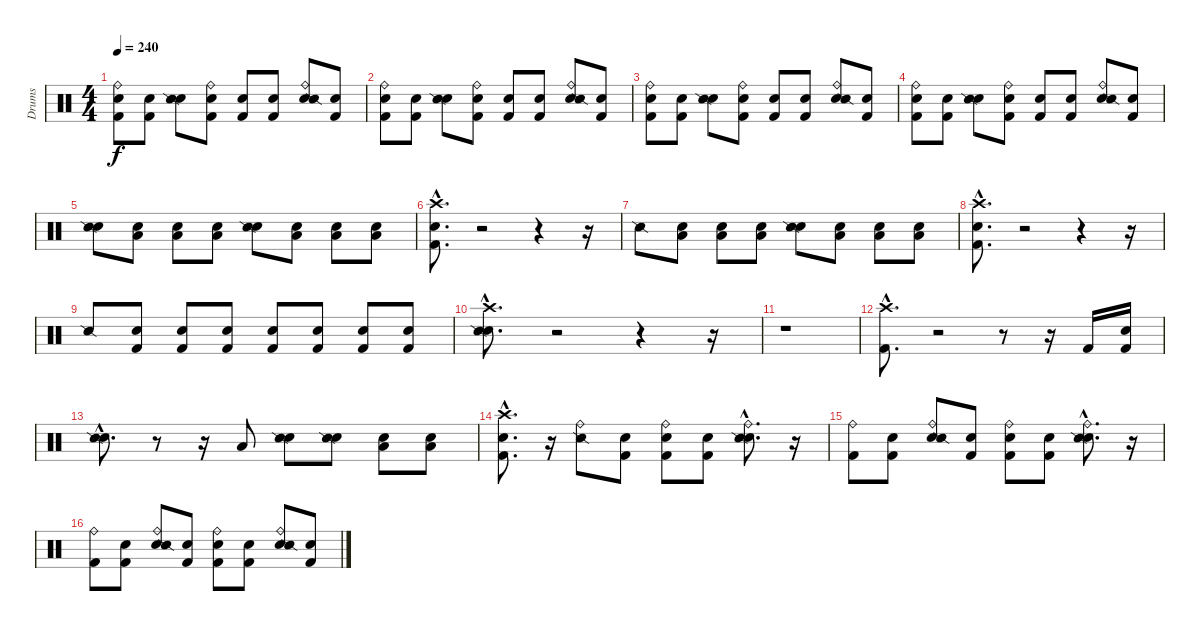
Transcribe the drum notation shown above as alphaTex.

\track ("Drums" "Drums") {instrument percussion}
\staff {score}
\articulation defaults
\ts (4 4)
\tempo 240
\clef neutral
\ks c
("Snare (hit)" "Kick (hit) 2" "Ride (bell)").8{dy f} ("Snare (hit)" "Kick (hit) 2").8 ("Snare (hit)" "Snare (side stick) 2").8 ("Snare (hit)" "Kick (hit) 2" "Ride (bell)").8 ("Snare (hit)" "Kick (hit) 2").8 ("Snare (hit)" "Kick (hit) 2").8 ("Snare (hit)" "Ride (bell)" "Snare (side stick) 2").8 ("Snare (hit)" "Kick (hit) 2").8 |
("Snare (hit)" "Kick (hit) 2" "Ride (bell)").8 ("Snare (hit)" "Kick (hit) 2").8 ("Snare (hit)" "Snare (side stick) 2").8 ("Snare (hit)" "Kick (hit) 2" "Ride (bell)").8 ("Snare (hit)" "Kick (hit) 2").8 ("Snare (hit)" "Kick (hit) 2").8 ("Snare (hit)" "Ride (bell)" "Snare (side stick) 2").8 ("Snare (hit)" "Kick (hit) 2").8 |
("Snare (hit)" "Kick (hit) 2" "Ride (bell)").8 ("Snare (hit)" "Kick (hit) 2").8 ("Snare (hit)" "Snare (side stick) 2").8 ("Snare (hit)" "Kick (hit) 2" "Ride (bell)").8 ("Snare (hit)" "Kick (hit) 2").8 ("Snare (hit)" "Kick (hit) 2").8 ("Snare (hit)" "Ride (bell)" "Snare (side stick) 2").8 ("Snare (hit)" "Kick (hit) 2").8 |
("Snare (hit)" "Kick (hit) 2" "Ride (bell)").8 ("Snare (hit)" "Kick (hit) 2").8 ("Snare (hit)" "Snare (side stick) 2").8 ("Snare (hit)" "Kick (hit) 2" "Ride (bell)").8 ("Snare (hit)" "Kick (hit) 2").8 ("Snare (hit)" "Kick (hit) 2").8 ("Snare (hit)" "Ride (bell)" "Snare (side stick) 2").8 ("Snare (hit)" "Kick (hit) 2").8 |
("Snare (hit)" "Snare (side stick) 2").8 ("Snare (hit)" "Low Tom (hit)").8 ("Snare (hit)" "Low Tom (hit)").8 ("Snare (hit)" "Low Tom (hit)").8 ("Snare (hit)" "Snare (side stick) 2").8 ("Snare (hit)" "Low Tom (hit)").8 ("Snare (hit)" "Low Tom (hit)").8 ("Snare (hit)" "Low Tom (hit)").8 |
("Snare (hit)"{hac} "Kick (hit) 2"{hac} "Crash high (hit)"{hac}).8{d} r.2 r.4 r.16 |
"Snare (side stick) 2".8 ("Snare (hit)" "Low Tom (hit)").8 ("Snare (hit)" "Low Tom (hit)").8 ("Snare (hit)" "Low Tom (hit)").8 ("Snare (hit)" "Snare (side stick) 2").8 ("Snare (hit)" "Low Tom (hit)").8 ("Snare (hit)" "Low Tom (hit)").8 ("Snare (hit)" "Low Tom (hit)").8 |
("Snare (hit)"{hac} "Kick (hit) 2"{hac} "Crash high (hit)"{hac}).8{d} r.2 r.4 r.16 |
"Snare (side stick) 2".8 ("Snare (hit)" "Kick (hit) 2").8 ("Snare (hit)" "Kick (hit) 2").8 ("Snare (hit)" "Kick (hit) 2").8 ("Snare (hit)" "Kick (hit) 2").8 ("Snare (hit)" "Kick (hit) 2").8 ("Snare (hit)" "Kick (hit) 2").8 ("Snare (hit)" "Kick (hit) 2").8 |
("Snare (hit)"{hac} "Snare (side stick) 2"{hac} "Crash high (hit)"{hac}).8{d} r.2 r.4 r.16 |
r.1 |
("Kick (hit) 2"{hac} "Crash high (hit)"{hac}).8{d} r.2 r.8 r.16 "Kick (hit) 2".16 ("Snare (hit)" "Kick (hit) 2").16 |
("Snare (hit)"{hac} "Snare (side stick) 2"{hac}).8{d} r.8 r.16 "Low Tom (hit)".8 ("Snare (hit)" "Snare (side stick) 2").8 ("Snare (hit)" "Snare (side stick) 2").8 ("Snare (hit)" "Low Tom (hit)").8 ("Snare (hit)" "Low Tom (hit)").8 |
("Snare (hit)"{hac} "Kick (hit) 2"{hac} "Crash high (hit)"{hac}).8{d} r.16 ("Ride (bell)" "Snare (side stick) 2").8 ("Snare (hit)" "Kick (hit) 2").8 ("Snare (hit)" "Kick (hit) 2" "Ride (bell)").8 ("Snare (hit)" "Kick (hit) 2").8 ("Snare (hit)"{hac} "Snare (side stick) 2"{hac} "Ride (bell)"{hac}).8{d} r.16 |
("Kick (hit) 2" "Ride (bell)").8 ("Snare (hit)" "Kick (hit) 2").8 ("Snare (hit)" "Ride (bell)" "Snare (side stick) 2").8 ("Snare (hit)" "Kick (hit) 2").8 ("Snare (hit)" "Kick (hit) 2" "Ride (bell)").8 ("Snare (hit)" "Kick (hit) 2").8 ("Snare (hit)"{hac} "Snare (side stick) 2"{hac} "Ride (bell)"{hac}).8{d} r.16 |
("Kick (hit) 2" "Ride (bell)").8 ("Snare (hit)" "Kick (hit) 2").8 ("Snare (hit)" "Ride (bell)" "Snare (side stick) 2").8 ("Snare (hit)" "Kick (hit) 2").8 ("Snare (hit)" "Kick (hit) 2" "Ride (bell)").8 ("Snare (hit)" "Kick (hit) 2").8 ("Snare (hit)" "Ride (bell)" "Snare (side stick) 2").8 ("Snare (hit)" "Kick (hit) 2").8
